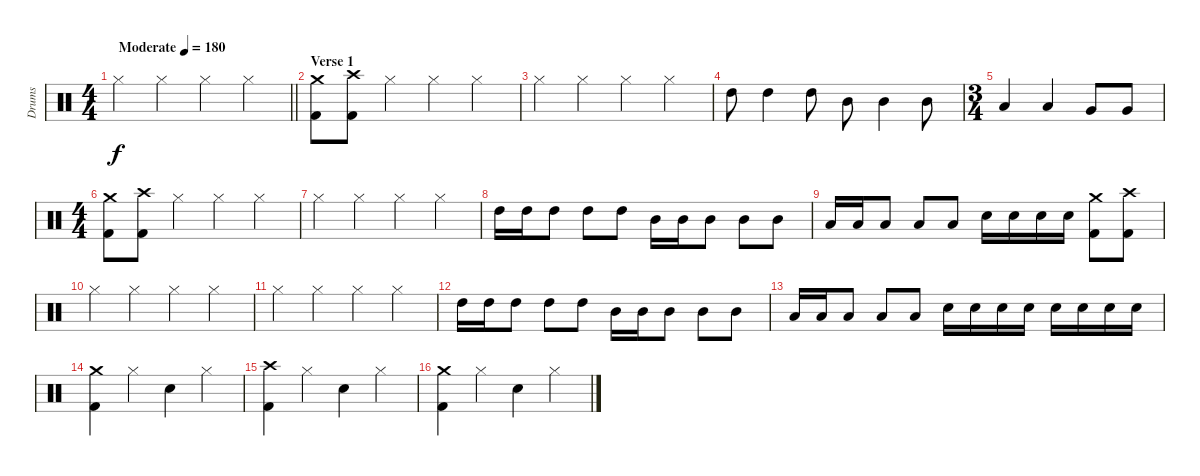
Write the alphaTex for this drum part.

\track ("Drums" "Drums") {instrument percussion}
\staff {score}
\articulation defaults
\ts (4 4)
\tempo (180 "Moderate")
\clef neutral
\barLineRight lightlight
\ks c "Hi-Hat (closed)".4{dy f} "Hi-Hat (closed)".4 "Hi-Hat (closed)".4 "Hi-Hat (closed)".4
|
\section ("" "Verse 1")
("Kick (hit) 2" "Crash medium (hit)").8 ("Kick (hit) 2" "Crash high (hit)").8 "Hi-Hat (closed)".4 "Hi-Hat (closed)".4 "Hi-Hat (closed)".4 |
"Hi-Hat (closed)".4 "Hi-Hat (closed)".4 "Hi-Hat (closed)".4 "Hi-Hat (closed)".4 |
"High Tom (hit)".8 "High Tom (hit)".4 "High Tom (hit)".8 "Mid Tom (hit)".8 "Mid Tom (hit)".4 "Mid Tom (hit)".8 |
\ts (3 4)
"Low Tom (hit)".4 "Low Tom (hit)".4 "Very Low Tom (hit)".8 "Very Low Tom (hit)".8 |
\ts (4 4)
("Kick (hit) 2" "Crash medium (hit)").8 ("Kick (hit) 2" "Crash high (hit)").8 "Hi-Hat (closed)".4 "Hi-Hat (closed)".4 "Hi-Hat (closed)".4 |
"Hi-Hat (closed)".4 "Hi-Hat (closed)".4 "Hi-Hat (closed)".4 "Hi-Hat (closed)".4 |
"High Tom (hit)".16 "High Tom (hit)".16 "High Tom (hit)".8 "High Tom (hit)".8 "High Tom (hit)".8 "Mid Tom (hit)".16 "Mid Tom (hit)".16 "Mid Tom (hit)".8 "Mid Tom (hit)".8 "Mid Tom (hit)".8 |
"Low Tom (hit)".16 "Low Tom (hit)".16 "Low Tom (hit)".8 "Low Tom (hit)".8 "Low Tom (hit)".8 "Snare (hit) 2".16 "Snare (hit) 2".16 "Snare (hit) 2".16 "Snare (hit) 2".16 ("Kick (hit) 2" "Crash medium (hit)").8 ("Kick (hit) 2" "Crash high (hit)").8 |
"Hi-Hat (closed)".4 "Hi-Hat (closed)".4 "Hi-Hat (closed)".4 "Hi-Hat (closed)".4 |
"Hi-Hat (closed)".4 "Hi-Hat (closed)".4 "Hi-Hat (closed)".4 "Hi-Hat (closed)".4 |
"High Tom (hit)".16 "High Tom (hit)".16 "High Tom (hit)".8 "High Tom (hit)".8 "High Tom (hit)".8 "Mid Tom (hit)".16 "Mid Tom (hit)".16 "Mid Tom (hit)".8 "Mid Tom (hit)".8 "Mid Tom (hit)".8 |
"Low Tom (hit)".16 "Low Tom (hit)".16 "Low Tom (hit)".8 "Low Tom (hit)".8 "Low Tom (hit)".8 "Snare (hit) 2".16 "Snare (hit) 2".16 "Snare (hit) 2".16 "Snare (hit) 2".16 "Snare (hit) 2".16 "Snare (hit) 2".16 "Snare (hit) 2".16 "Snare (hit) 2".16 |
("Kick (hit) 2" "Crash medium (hit)").4 "Hi-Hat (closed)".4 "Snare (hit) 2".4 "Hi-Hat (closed)".4 |
("Kick (hit) 2" "Crash high (hit)").4 "Hi-Hat (closed)".4 "Snare (hit) 2".4 "Hi-Hat (closed)".4 |
("Kick (hit) 2" "Crash medium (hit)").4 "Hi-Hat (closed)".4 "Snare (hit) 2".4 "Hi-Hat (closed)".4
